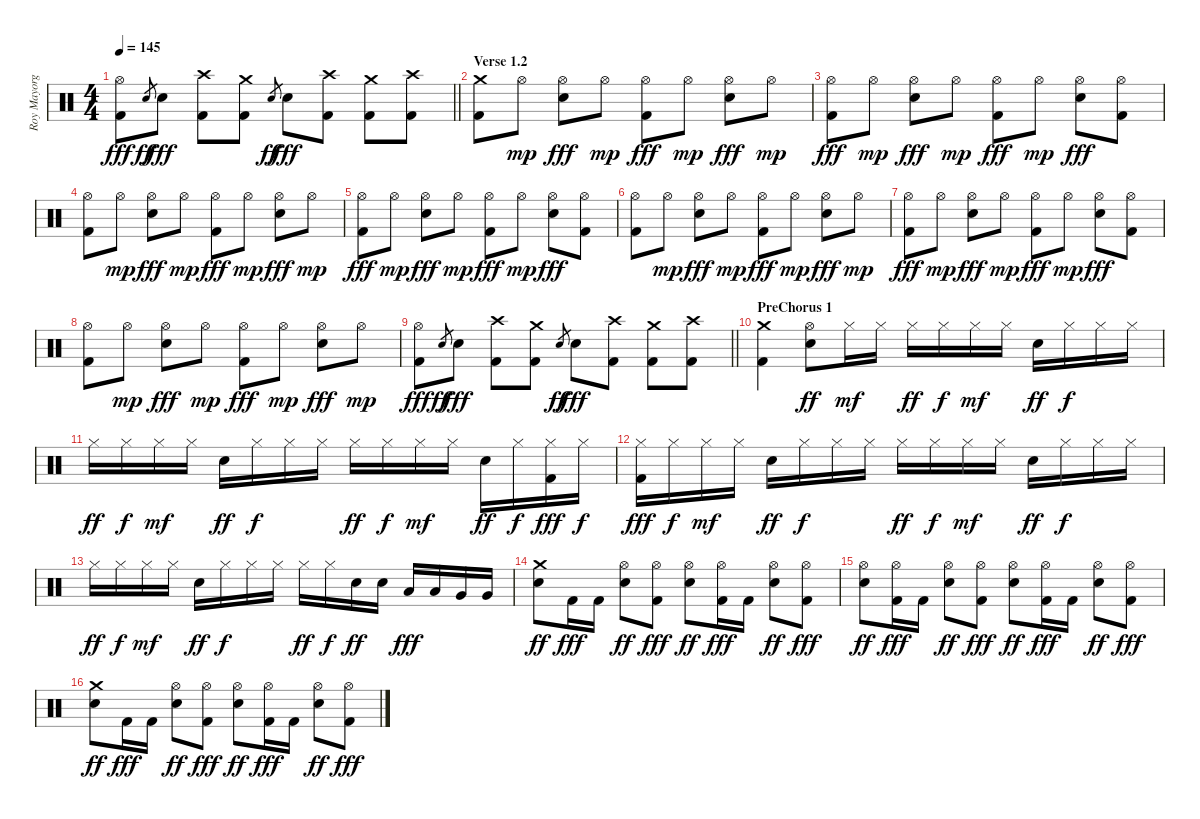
\track ("Roy Mayorga" "Roy Mayorg") {instrument percussion}
\staff {score}
\articulation defaults
\ts (4 4)
\tempo 145
\clef neutral
\barLineRight lightlight
\ks c
("Hi-Hat (open)" "Kick (hit) 2").8{dy fff} "Electric Snare (hit)".8{gr dy ff} "Electric Snare (hit)".8{dy fff} ("Crash high (hit)" "Kick (hit) 2").8 ("Crash medium (hit)" "Kick (hit) 2").8 "Electric Snare (hit)".8{gr dy ff} "Electric Snare (hit)".8{dy fff} ("Crash high (hit)" "Kick (hit) 2").8 ("Crash medium (hit)" "Kick (hit) 2").8 ("Crash high (hit)" "Kick (hit) 2").8 |
\section ("" "Verse 1.2")
("Crash medium (hit)" "Kick (hit) 2").8 "Hi-Hat (open)".8{dy mp} ("Hi-Hat (open)" "Electric Snare (hit)").8{dy fff} "Hi-Hat (open)".8{dy mp} ("Hi-Hat (open)" "Kick (hit) 2").8{dy fff} "Hi-Hat (open)".8{dy mp} ("Hi-Hat (open)" "Electric Snare (hit)").8{dy fff} "Hi-Hat (open)".8{dy mp} |
("Hi-Hat (open)" "Kick (hit) 2").8{dy fff} "Hi-Hat (open)".8{dy mp} ("Hi-Hat (open)" "Electric Snare (hit)").8{dy fff} "Hi-Hat (open)".8{dy mp} ("Hi-Hat (open)" "Kick (hit) 2").8{dy fff} "Hi-Hat (open)".8{dy mp} ("Hi-Hat (open)" "Electric Snare (hit)").8{dy fff} ("Hi-Hat (open)" "Kick (hit) 2").8 |
("Hi-Hat (open)" "Kick (hit) 2").8 "Hi-Hat (open)".8{dy mp} ("Hi-Hat (open)" "Electric Snare (hit)").8{dy fff} "Hi-Hat (open)".8{dy mp} ("Hi-Hat (open)" "Kick (hit) 2").8{dy fff} "Hi-Hat (open)".8{dy mp} ("Hi-Hat (open)" "Electric Snare (hit)").8{dy fff} "Hi-Hat (open)".8{dy mp} |
("Hi-Hat (open)" "Kick (hit) 2").8{dy fff} "Hi-Hat (open)".8{dy mp} ("Hi-Hat (open)" "Electric Snare (hit)").8{dy fff} "Hi-Hat (open)".8{dy mp} ("Hi-Hat (open)" "Kick (hit) 2").8{dy fff} "Hi-Hat (open)".8{dy mp} ("Hi-Hat (open)" "Electric Snare (hit)").8{dy fff} ("Hi-Hat (open)" "Kick (hit) 2").8 |
("Hi-Hat (open)" "Kick (hit) 2").8 "Hi-Hat (open)".8{dy mp} ("Hi-Hat (open)" "Electric Snare (hit)").8{dy fff} "Hi-Hat (open)".8{dy mp} ("Hi-Hat (open)" "Kick (hit) 2").8{dy fff} "Hi-Hat (open)".8{dy mp} ("Hi-Hat (open)" "Electric Snare (hit)").8{dy fff} "Hi-Hat (open)".8{dy mp} |
("Hi-Hat (open)" "Kick (hit) 2").8{dy fff} "Hi-Hat (open)".8{dy mp} ("Hi-Hat (open)" "Electric Snare (hit)").8{dy fff} "Hi-Hat (open)".8{dy mp} ("Hi-Hat (open)" "Kick (hit) 2").8{dy fff} "Hi-Hat (open)".8{dy mp} ("Hi-Hat (open)" "Electric Snare (hit)").8{dy fff} ("Hi-Hat (open)" "Kick (hit) 2").8 |
("Hi-Hat (open)" "Kick (hit) 2").8 "Hi-Hat (open)".8{dy mp} ("Hi-Hat (open)" "Electric Snare (hit)").8{dy fff} "Hi-Hat (open)".8{dy mp} ("Hi-Hat (open)" "Kick (hit) 2").8{dy fff} "Hi-Hat (open)".8{dy mp} ("Hi-Hat (open)" "Electric Snare (hit)").8{dy fff} "Hi-Hat (open)".8{dy mp} |
\barLineRight lightlight
("Hi-Hat (open)" "Kick (hit) 2").8{dy fff} "Electric Snare (hit)".8{gr dy ff} "Electric Snare (hit)".8{dy fff} ("Crash high (hit)" "Kick (hit) 2").8 ("Crash medium (hit)" "Kick (hit) 2").8 "Electric Snare (hit)".8{gr dy ff} "Electric Snare (hit)".8{dy fff} ("Crash high (hit)" "Kick (hit) 2").8 ("Crash medium (hit)" "Kick (hit) 2").8 ("Crash high (hit)" "Kick (hit) 2").8 |
\section ("" "PreChorus 1")
("Crash medium (hit)" "Kick (hit) 2").4 ("Hi-Hat (open)" "Electric Snare (hit)").8{dy ff} "Hi-Hat (closed)".16{dy mf} "Hi-Hat (closed)".16 "Hi-Hat (closed)".16{dy ff} "Hi-Hat (closed)".16{dy f} "Hi-Hat (closed)".16{dy mf} "Hi-Hat (closed)".16 "Electric Snare (hit)".16{dy ff} "Hi-Hat (closed)".16{dy f} "Hi-Hat (closed)".16 "Hi-Hat (closed)".16 |
"Hi-Hat (closed)".16{dy ff} "Hi-Hat (closed)".16{dy f} "Hi-Hat (closed)".16{dy mf} "Hi-Hat (closed)".16 "Electric Snare (hit)".16{dy ff} "Hi-Hat (closed)".16{dy f} "Hi-Hat (closed)".16 "Hi-Hat (closed)".16 "Hi-Hat (closed)".16{dy ff} "Hi-Hat (closed)".16{dy f} "Hi-Hat (closed)".16{dy mf} "Hi-Hat (closed)".16 "Electric Snare (hit)".16{dy ff} "Hi-Hat (closed)".16{dy f} ("Hi-Hat (closed)" "Kick (hit) 2").16{dy fff} "Hi-Hat (closed)".16{dy f} |
("Hi-Hat (closed)" "Kick (hit) 2").16{dy fff} "Hi-Hat (closed)".16{dy f} "Hi-Hat (closed)".16{dy mf} "Hi-Hat (closed)".16 "Electric Snare (hit)".16{dy ff} "Hi-Hat (closed)".16{dy f} "Hi-Hat (closed)".16 "Hi-Hat (closed)".16 "Hi-Hat (closed)".16{dy ff} "Hi-Hat (closed)".16{dy f} "Hi-Hat (closed)".16{dy mf} "Hi-Hat (closed)".16 "Electric Snare (hit)".16{dy ff} "Hi-Hat (closed)".16{dy f} "Hi-Hat (closed)".16 "Hi-Hat (closed)".16 |
"Hi-Hat (closed)".16{dy ff} "Hi-Hat (closed)".16{dy f} "Hi-Hat (closed)".16{dy mf} "Hi-Hat (closed)".16 "Electric Snare (hit)".16{dy ff} "Hi-Hat (closed)".16{dy f} "Hi-Hat (closed)".16 "Hi-Hat (closed)".16 "Hi-Hat (closed)".16{dy ff} "Hi-Hat (closed)".16{dy f} "Electric Snare (hit)".16{dy ff} "Electric Snare (hit)".16 "Low Tom (hit)".16{dy fff} "Low Tom (hit)".16 "Very Low Tom (hit)".16 "Very Low Tom (hit)".16 |
("Crash medium (hit)" "Electric Snare (hit)").8{dy ff} "Kick (hit) 2".16{dy fff} "Kick (hit) 2".16 ("Hi-Hat (open)" "Electric Snare (hit)").8{dy ff} ("Hi-Hat (open)" "Kick (hit) 2").8{dy fff} ("Hi-Hat (open)" "Electric Snare (hit)").8{dy ff} ("Hi-Hat (open)" "Kick (hit) 2").16{dy fff} "Kick (hit) 2".16 ("Hi-Hat (open)" "Electric Snare (hit)").8{dy ff} ("Hi-Hat (open)" "Kick (hit) 2").8{dy fff} |
("Hi-Hat (open)" "Electric Snare (hit)").8{dy ff} ("Hi-Hat (open)" "Kick (hit) 2").16{dy fff} "Kick (hit) 2".16 ("Hi-Hat (open)" "Electric Snare (hit)").8{dy ff} ("Hi-Hat (open)" "Kick (hit) 2").8{dy fff} ("Hi-Hat (open)" "Electric Snare (hit)").8{dy ff} ("Hi-Hat (open)" "Kick (hit) 2").16{dy fff} "Kick (hit) 2".16 ("Hi-Hat (open)" "Electric Snare (hit)").8{dy ff} ("Hi-Hat (open)" "Kick (hit) 2").8{dy fff} |
("Crash medium (hit)" "Electric Snare (hit)").8{dy ff} "Kick (hit) 2".16{dy fff} "Kick (hit) 2".16 ("Hi-Hat (open)" "Electric Snare (hit)").8{dy ff} ("Hi-Hat (open)" "Kick (hit) 2").8{dy fff} ("Hi-Hat (open)" "Electric Snare (hit)").8{dy ff} ("Hi-Hat (open)" "Kick (hit) 2").16{dy fff} "Kick (hit) 2".16 ("Hi-Hat (open)" "Electric Snare (hit)").8{dy ff} ("Hi-Hat (open)" "Kick (hit) 2").8{dy fff}
